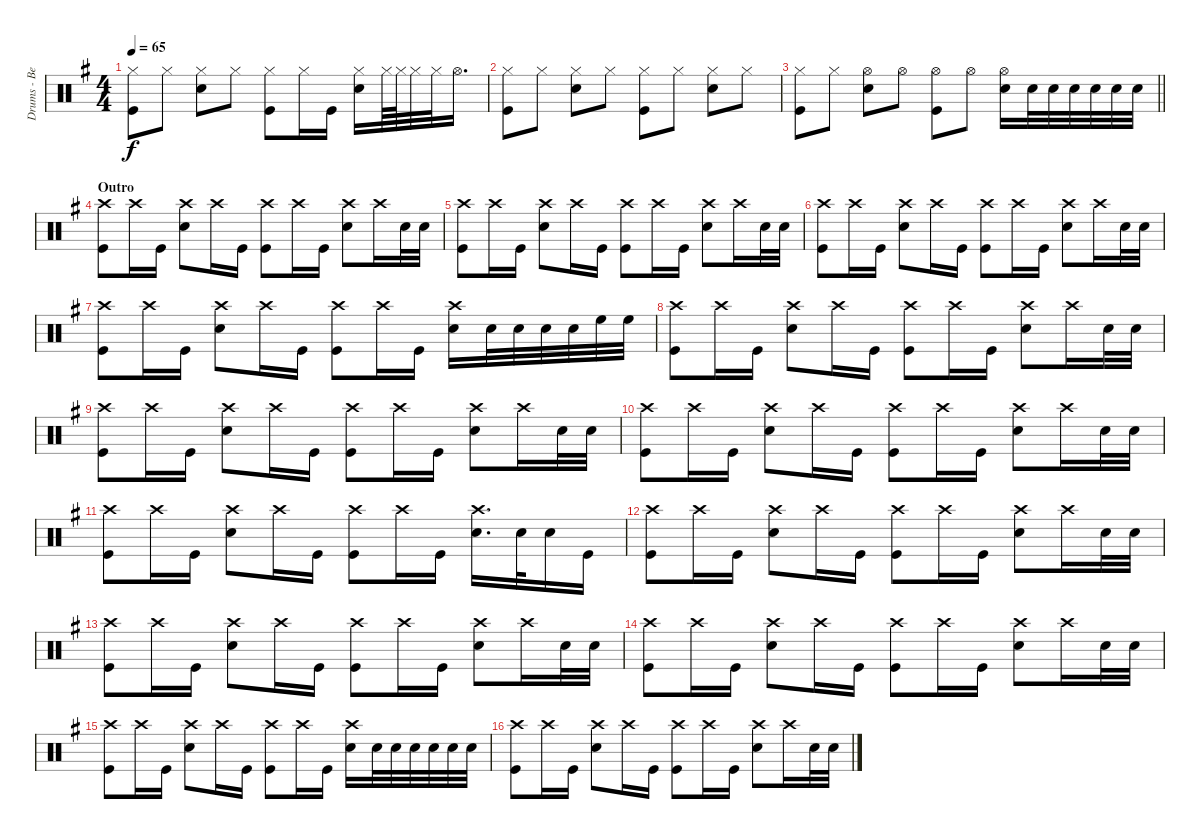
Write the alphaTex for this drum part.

\track ("Drums - Ben Johnston" "Drums - Be") {instrument percussion}
\staff {score}
\articulation defaults
\ts (4 4)
\tempo 65
\clef neutral
\ks g
("Hi-Hat (closed)" "Kick (hit)").8{dy f} "Hi-Hat (closed)".8 ("Hi-Hat (closed)" "Snare (hit) 2").8 "Hi-Hat (closed)".8 ("Hi-Hat (closed)" "Kick (hit)").8 "Hi-Hat (closed)".16 "Kick (hit)".16 ("Hi-Hat (closed)" "Snare (hit) 2").16 "Hi-Hat (closed)".64 "Hi-Hat (closed)".64 "Hi-Hat (closed)".32 "Hi-Hat (closed)".32 "Hi-Hat (open)".16{d} |
("Hi-Hat (closed)" "Kick (hit)").8 "Hi-Hat (closed)".8 ("Hi-Hat (closed)" "Snare (hit) 2").8 "Hi-Hat (closed)".8 ("Hi-Hat (closed)" "Kick (hit)").8 "Hi-Hat (closed)".8 ("Hi-Hat (closed)" "Snare (hit) 2").8 "Hi-Hat (closed)".8 |
\barLineRight lightlight
("Hi-Hat (closed)" "Kick (hit)").8 "Hi-Hat (closed)".8 ("Hi-Hat (open)" "Snare (hit) 2").8 "Hi-Hat (open)".8 ("Hi-Hat (open)" "Kick (hit)").8 "Hi-Hat (open)".8 ("Hi-Hat (open)" "Snare (hit) 2").16 "Snare (hit) 2".32 "Snare (hit) 2".32 "Snare (hit) 2".32 "Snare (hit) 2".32 "Snare (hit) 2".32 "Snare (hit) 2".32 |
\section ("" "Outro")
("Crash high (hit)" "Kick (hit)").8 "Crash high (hit)".16 "Kick (hit)".16 ("Crash high (hit)" "Snare (hit) 2").8 "Crash high (hit)".16 "Kick (hit)".16 ("Crash high (hit)" "Kick (hit)").8 "Crash high (hit)".16 "Kick (hit)".16 ("Crash high (hit)" "Snare (hit) 2").8 "Crash high (hit)".16 "Snare (hit) 2".32 "Snare (hit) 2".32 |
("Crash high (hit)" "Kick (hit)").8 "Crash high (hit)".16 "Kick (hit)".16 ("Crash high (hit)" "Snare (hit) 2").8 "Crash high (hit)".16 "Kick (hit)".16 ("Crash high (hit)" "Kick (hit)").8 "Crash high (hit)".16 "Kick (hit)".16 ("Crash high (hit)" "Snare (hit) 2").8 "Crash high (hit)".16 "Snare (hit) 2".32 "Snare (hit) 2".32 |
("Crash high (hit)" "Kick (hit)").8 "Crash high (hit)".16 "Kick (hit)".16 ("Crash high (hit)" "Snare (hit) 2").8 "Crash high (hit)".16 "Kick (hit)".16 ("Crash high (hit)" "Kick (hit)").8 "Crash high (hit)".16 "Kick (hit)".16 ("Crash high (hit)" "Snare (hit) 2").8 "Crash high (hit)".16 "Snare (hit) 2".32 "Snare (hit) 2".32 |
("Crash high (hit)" "Kick (hit)").8 "Crash high (hit)".16 "Kick (hit)".16 ("Crash high (hit)" "Snare (hit) 2").8 "Crash high (hit)".16 "Kick (hit)".16 ("Crash high (hit)" "Kick (hit)").8 "Crash high (hit)".16 "Kick (hit)".16 ("Crash high (hit)" "Snare (hit) 2").16 "Snare (hit) 2".32 "Snare (hit) 2".32 "Snare (hit) 2".32 "Snare (hit) 2".32 "High Floor Tom (hit)".32 "High Floor Tom (hit)".32 |
("Crash high (hit)" "Kick (hit)").8 "Crash high (hit)".16 "Kick (hit)".16 ("Crash high (hit)" "Snare (hit) 2").8 "Crash high (hit)".16 "Kick (hit)".16 ("Crash high (hit)" "Kick (hit)").8 "Crash high (hit)".16 "Kick (hit)".16 ("Crash high (hit)" "Snare (hit) 2").8 "Crash high (hit)".16 "Snare (hit) 2".32 "Snare (hit) 2".32 |
("Crash high (hit)" "Kick (hit)").8 "Crash high (hit)".16 "Kick (hit)".16 ("Crash high (hit)" "Snare (hit) 2").8 "Crash high (hit)".16 "Kick (hit)".16 ("Crash high (hit)" "Kick (hit)").8 "Crash high (hit)".16 "Kick (hit)".16 ("Crash high (hit)" "Snare (hit) 2").8 "Crash high (hit)".16 "Snare (hit) 2".32 "Snare (hit) 2".32 |
("Crash high (hit)" "Kick (hit)").8 "Crash high (hit)".16 "Kick (hit)".16 ("Crash high (hit)" "Snare (hit) 2").8 "Crash high (hit)".16 "Kick (hit)".16 ("Crash high (hit)" "Kick (hit)").8 "Crash high (hit)".16 "Kick (hit)".16 ("Crash high (hit)" "Snare (hit) 2").8 "Crash high (hit)".16 "Snare (hit) 2".32 "Snare (hit) 2".32 |
("Crash high (hit)" "Kick (hit)").8 "Crash high (hit)".16 "Kick (hit)".16 ("Crash high (hit)" "Snare (hit) 2").8 "Crash high (hit)".16 "Kick (hit)".16 ("Crash high (hit)" "Kick (hit)").8 "Crash high (hit)".16 "Kick (hit)".16 ("Crash high (hit)" "Snare (hit) 2").16{d} "Snare (hit) 2".32 "Snare (hit) 2".16 "Kick (hit)".16 |
("Crash high (hit)" "Kick (hit)").8 "Crash high (hit)".16 "Kick (hit)".16 ("Crash high (hit)" "Snare (hit) 2").8 "Crash high (hit)".16 "Kick (hit)".16 ("Crash high (hit)" "Kick (hit)").8 "Crash high (hit)".16 "Kick (hit)".16 ("Crash high (hit)" "Snare (hit) 2").8 "Crash high (hit)".16 "Snare (hit) 2".32 "Snare (hit) 2".32 |
("Crash high (hit)" "Kick (hit)").8 "Crash high (hit)".16 "Kick (hit)".16 ("Crash high (hit)" "Snare (hit) 2").8 "Crash high (hit)".16 "Kick (hit)".16 ("Crash high (hit)" "Kick (hit)").8 "Crash high (hit)".16 "Kick (hit)".16 ("Crash high (hit)" "Snare (hit) 2").8 "Crash high (hit)".16 "Snare (hit) 2".32 "Snare (hit) 2".32 |
("Crash high (hit)" "Kick (hit)").8 "Crash high (hit)".16 "Kick (hit)".16 ("Crash high (hit)" "Snare (hit) 2").8 "Crash high (hit)".16 "Kick (hit)".16 ("Crash high (hit)" "Kick (hit)").8 "Crash high (hit)".16 "Kick (hit)".16 ("Crash high (hit)" "Snare (hit) 2").8 "Crash high (hit)".16 "Snare (hit) 2".32 "Snare (hit) 2".32 |
("Crash high (hit)" "Kick (hit)").8 "Crash high (hit)".16 "Kick (hit)".16 ("Crash high (hit)" "Snare (hit) 2").8 "Crash high (hit)".16 "Kick (hit)".16 ("Crash high (hit)" "Kick (hit)").8 "Crash high (hit)".16 "Kick (hit)".16 ("Crash high (hit)" "Snare (hit) 2").16 "Snare (hit) 2".32 "Snare (hit) 2".32 "Snare (hit) 2".32 "Snare (hit) 2".32 "Snare (hit) 2".32 "Snare (hit) 2".32 |
("Crash high (hit)" "Kick (hit)").8 "Crash high (hit)".16 "Kick (hit)".16 ("Crash high (hit)" "Snare (hit) 2").8 "Crash high (hit)".16 "Kick (hit)".16 ("Crash high (hit)" "Kick (hit)").8 "Crash high (hit)".16 "Kick (hit)".16 ("Crash high (hit)" "Snare (hit) 2").8 "Crash high (hit)".16 "Snare (hit) 2".32 "Snare (hit) 2".32
